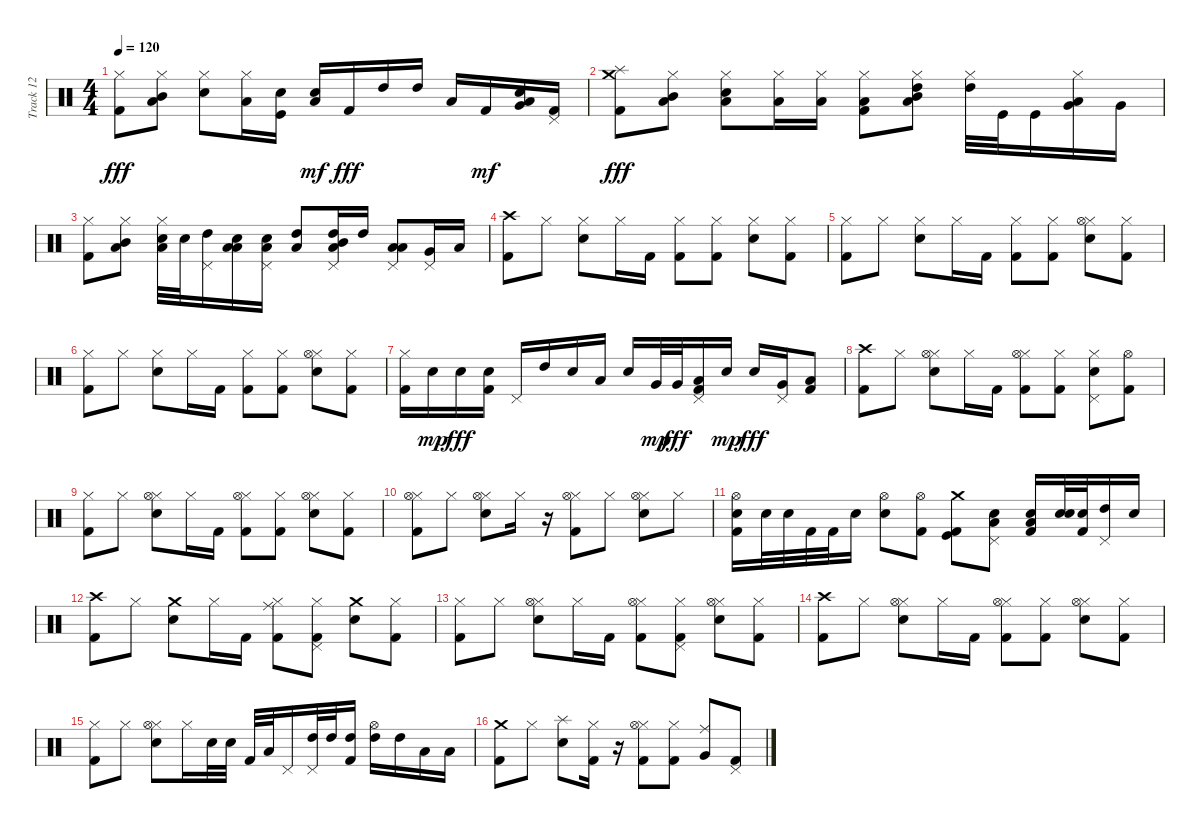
\track ("Track 12" "Track 12") {instrument percussion}
\staff {score}
\articulation defaults
\ts (4 4)
\tempo 120
\clef neutral
\ks c
("Hi-Hat (closed)" "Kick (hit) 2").8{dy fff} ("Hi-Hat (closed)" "Mid Tom (hit)" "Low Floor Tom (hit)").8 ("Hi-Hat (closed)" "Snare (hit) 2").8 ("Hi-Hat (closed)" "Low Floor Tom (hit)").16 ("Snare (hit) 2" "Kick (hit)").16 ("Low Floor Tom (hit)" "Snare (hit) 2").16{dy mf} "Kick (hit) 2".16{dy fff} "High Tom (hit)".16 "High Tom (hit)".16 "Low Tom (hit)".16 "Kick (hit) 2".16{dy mf} ("Very Low Tom (hit)" "Low Floor Tom (hit)" "Snare (hit) 2").16 ("Pedal Hi-Hat (hit)" "Kick (hit) 2").16 |
("Crash medium (hit)" "Splash (hit)" "Kick (hit) 2").8{dy fff} ("Hi-Hat (closed)" "Mid Tom (hit)" "Low Floor Tom (hit)").8 ("Hi-Hat (closed)" "Low Floor Tom (hit)" "Snare (hit) 2").8 ("Hi-Hat (closed)" "Low Tom (hit)").16 ("Hi-Hat (closed)" "Low Tom (hit)").16 ("Hi-Hat (closed)" "Low Floor Tom (hit)" "Kick (hit) 2").8 ("Hi-Hat (closed)" "Mid Tom (hit)" "High Tom (hit)" "Low Floor Tom (hit)").8 ("Hi-Hat (closed)" "High Tom (hit)").32 "Kick (hit)".32 "Kick (hit)".16 ("Hi-Hat (closed)" "Very Low Tom (hit)" "Low Floor Tom (hit)").16 "Very Low Tom (hit)".16 |
("Hi-Hat (closed)" "Kick (hit) 2").8 ("Hi-Hat (closed)" "Mid Tom (hit)" "Low Floor Tom (hit)").8 ("Hi-Hat (closed)" "Low Floor Tom (hit)" "Snare (hit) 2").32 "Snare (hit) 2".32 ("Pedal Hi-Hat (hit)" "High Tom (hit)").16 ("Low Tom (hit)" "Low Floor Tom (hit)" "Snare (hit) 2").16 ("Pedal Hi-Hat (hit)" "Low Tom (hit)" "Electric Snare (hit)").16 ("Low Floor Tom (hit)" "High Tom (hit)").8 ("Pedal Hi-Hat (hit)" "Low Floor Tom (hit)" "Mid Tom (hit)" "High Tom (hit)").16 "High Tom (hit)".16 ("Pedal Hi-Hat (hit)" "Low Floor Tom (hit)" "Low Tom (hit)").8 ("Pedal Hi-Hat (hit)" "Very Low Tom (hit)").16 "Low Floor Tom (hit)".16 |
("Crash high (hit)" "Kick (hit) 2").8 "Hi-Hat (closed)".8 ("Hi-Hat (closed)" "Snare (hit) 2").8 "Hi-Hat (closed)".16 "Kick (hit) 2".16 ("Hi-Hat (closed)" "Kick (hit) 2").8 ("Hi-Hat (closed)" "Kick (hit) 2").8 ("Hi-Hat (closed)" "Electric Snare (hit)").8 ("Hi-Hat (closed)" "Kick (hit) 2").8 |
("Hi-Hat (closed)" "Kick (hit) 2").8 "Hi-Hat (closed)".8 ("Hi-Hat (closed)" "Snare (hit) 2").8 "Hi-Hat (closed)".16 "Kick (hit) 2".16 ("Hi-Hat (closed)" "Kick (hit) 2").8 ("Hi-Hat (closed)" "Kick (hit) 2").8 ("Hi-Hat (closed)" "Hi-Hat (open)" "Snare (hit) 2").8 ("Hi-Hat (closed)" "Kick (hit) 2").8 |
("Hi-Hat (closed)" "Kick (hit) 2").8 "Hi-Hat (closed)".8 ("Hi-Hat (closed)" "Snare (hit) 2").8 "Hi-Hat (closed)".16 "Kick (hit) 2".16 ("Hi-Hat (closed)" "Kick (hit) 2").8 ("Hi-Hat (closed)" "Kick (hit) 2").8 ("Hi-Hat (closed)" "Hi-Hat (open)" "Electric Snare (hit)").8 ("Hi-Hat (closed)" "Kick (hit) 2").8 |
("Hi-Hat (closed)" "Kick (hit) 2").16 "Snare (hit) 2".16{dy mp} "Snare (hit) 2".16{dy fff} ("Snare (hit) 2" "Kick (hit) 2").16 "Pedal Hi-Hat (hit)".16 "High Tom (hit)".16 "Snare (hit) 2".16 "Low Tom (hit)".16 "Snare (hit) 2".16 "Very Low Tom (hit)".32{dy mp} "Very Low Tom (hit)".32{dy fff} ("Pedal Hi-Hat (hit)" "Low Floor Tom (hit)" "Kick (hit) 2").16 "Snare (hit) 2".16{dy mp} "Snare (hit) 2".16{dy fff} ("Pedal Hi-Hat (hit)" "Very Low Tom (hit)").16 ("Low Floor Tom (hit)" "Kick (hit) 2").8 |
("Crash high (hit)" "Kick (hit) 2").8 "Hi-Hat (closed)".8 ("Hi-Hat (closed)" "Hi-Hat (open)" "Snare (hit) 2").8 "Hi-Hat (closed)".16 "Kick (hit) 2".16 ("Hi-Hat (closed)" "Hi-Hat (open)" "Kick (hit) 2").8 ("Hi-Hat (closed)" "Kick (hit) 2").8 ("Hi-Hat (closed)" "Pedal Hi-Hat (hit)" "Electric Snare (hit)").8 ("Hi-Hat (open)" "Kick (hit) 2").8 |
("Hi-Hat (closed)" "Kick (hit) 2").8 "Hi-Hat (closed)".8 ("Hi-Hat (closed)" "Hi-Hat (open)" "Snare (hit) 2").8 "Hi-Hat (closed)".16 "Kick (hit) 2".16 ("Hi-Hat (closed)" "Hi-Hat (open)" "Kick (hit) 2").8 ("Hi-Hat (closed)" "Kick (hit) 2").8 ("Hi-Hat (closed)" "Hi-Hat (open)" "Snare (hit) 2").8 ("Hi-Hat (closed)" "Kick (hit) 2").8 |
("Hi-Hat (closed)" "Hi-Hat (open)" "Kick (hit) 2").8 "Hi-Hat (closed)".8 ("Hi-Hat (closed)" "Hi-Hat (open)" "Electric Snare (hit)").8 "Hi-Hat (closed)".16 r.16 ("Hi-Hat (closed)" "Hi-Hat (open)" "Kick (hit) 2").8 "Hi-Hat (closed)".8 ("Hi-Hat (closed)" "Hi-Hat (open)" "Electric Snare (hit)").8 "Hi-Hat (closed)".8 |
("Hi-Hat (open)" "Snare (hit) 2" "Kick (hit) 2").16 "Snare (hit) 2".32 "Snare (hit) 2".32 "Kick (hit) 2".32 "Kick (hit) 2".32 "Electric Snare (hit)".16 ("Hi-Hat (open)" "Snare (hit) 2").8 ("Hi-Hat (open)" "Kick (hit) 2").8 ("Crash medium (hit)" "Kick (hit)" "Kick (hit) 2").8 ("Pedal Hi-Hat (hit)" "Low Tom (hit)" "Electric Snare (hit)").8 ("Low Floor Tom (hit)" "Snare (hit) 2" "Kick (hit) 2").16 ("Electric Snare (hit)" "Snare (hit) 2").32 ("Snare (hit) 2" "Kick (hit) 2").32 ("Pedal Hi-Hat (hit)" "High Tom (hit)").16 "Snare (hit) 2".16 |
("Crash high (hit)" "Kick (hit) 2").8 "Hi-Hat (closed)".8 ("Crash medium (hit)" "Snare (hit) 2").8 "Hi-Hat (closed)".16 "Kick (hit) 2".16 ("Hi-Hat (closed)" "Ride (middle)" "Kick (hit) 2").8 ("Hi-Hat (closed)" "Pedal Hi-Hat (hit)" "Kick (hit) 2").8 ("Crash medium (hit)" "Electric Snare (hit)").8 ("Hi-Hat (closed)" "Kick (hit) 2").8 |
("Hi-Hat (closed)" "Kick (hit) 2").8 "Hi-Hat (closed)".8 ("Hi-Hat (closed)" "Hi-Hat (open)" "Electric Snare (hit)").8 "Hi-Hat (closed)".16 "Kick (hit) 2".16 ("Hi-Hat (closed)" "Hi-Hat (open)" "Kick (hit) 2").8 ("Hi-Hat (closed)" "Pedal Hi-Hat (hit)" "Kick (hit) 2").8 ("Hi-Hat (closed)" "Hi-Hat (open)" "Snare (hit) 2").8 ("Hi-Hat (closed)" "Kick (hit) 2").8 |
("Crash high (hit)" "Kick (hit) 2").8 "Hi-Hat (closed)".8 ("Hi-Hat (closed)" "Hi-Hat (open)" "Snare (hit) 2").8 "Hi-Hat (closed)".16 "Kick (hit) 2".16 ("Hi-Hat (closed)" "Hi-Hat (open)" "Kick (hit) 2").8 ("Hi-Hat (closed)" "Kick (hit) 2").8 ("Hi-Hat (closed)" "Hi-Hat (open)" "Electric Snare (hit)").8 ("Hi-Hat (closed)" "Kick (hit) 2").8 |
("Hi-Hat (closed)" "Kick (hit) 2").8 "Hi-Hat (closed)".8 ("Hi-Hat (closed)" "Hi-Hat (open)" "Snare (hit) 2").8 "Hi-Hat (closed)".16 "Snare (hit) 2".32 "Snare (hit) 2".32 "Kick (hit) 2".32 "Low Floor Tom (hit)".32 "Pedal Hi-Hat (hit)".16 ("Pedal Hi-Hat (hit)" "High Tom (hit)").32 "High Tom (hit)".32 ("High Tom (hit)" "Kick (hit) 2").16 ("Hi-Hat (open)" "High Tom (hit)").16 "High Tom (hit)".16 "Low Tom (hit)".16 "Low Tom (hit)".16 |
("Crash medium (hit)" "Kick (hit) 2").8 "Hi-Hat (closed)".8 ("Splash (hit)" "Snare (hit) 2").8 ("Hi-Hat (closed)" "Kick (hit) 2").16 r.16 ("Hi-Hat (closed)" "Hi-Hat (open)" "Kick (hit) 2").8 ("Hi-Hat (closed)" "Kick (hit) 2").8 ("Ride (middle)" "Very Low Tom (hit)").8 ("Pedal Hi-Hat (hit)" "Kick (hit) 2").8
